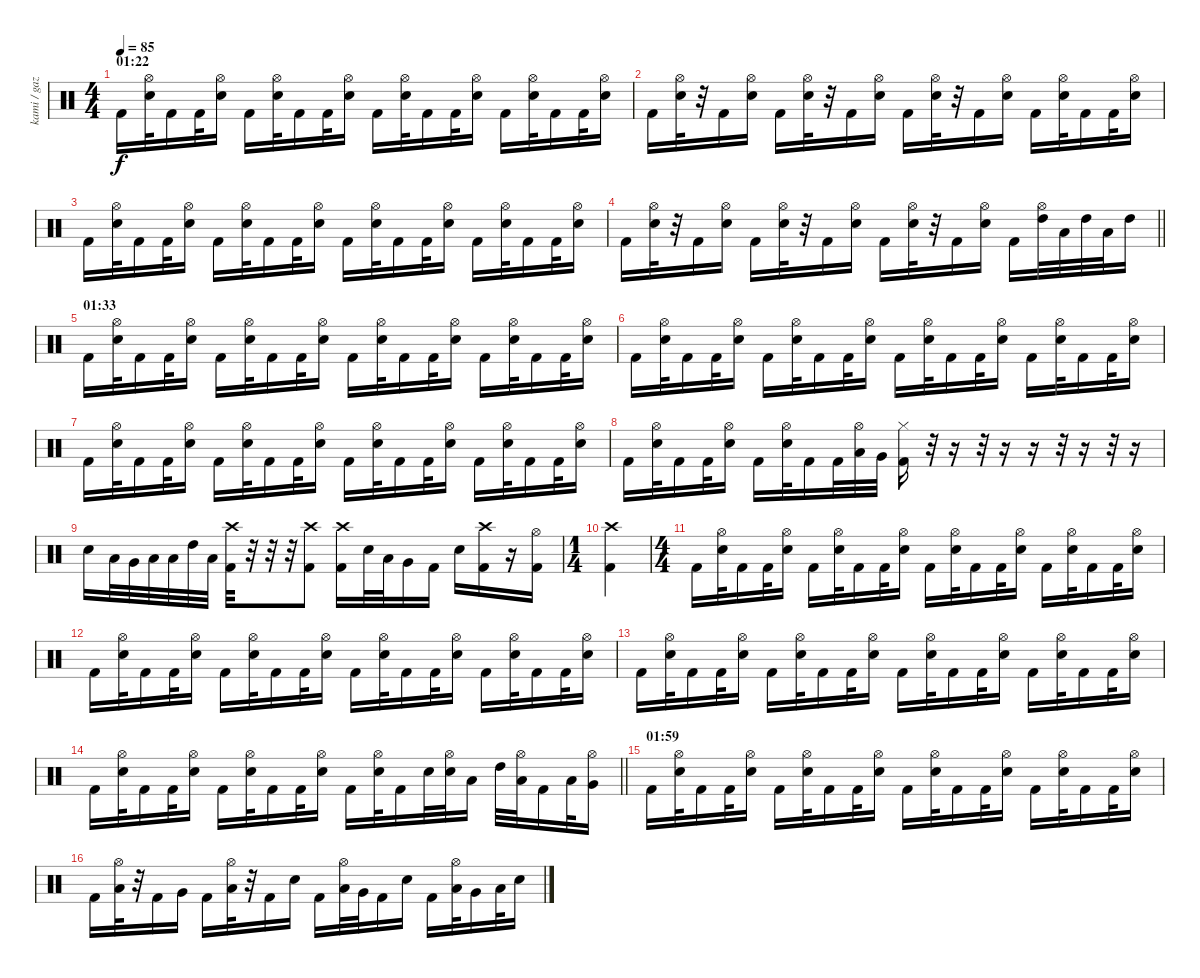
\track ("kami / gaz (?)" "kami / gaz") {instrument percussion}
\staff {score}
\articulation defaults
\ts (4 4)
\section ("" "01:22")
\tempo 85
\clef neutral
\ks c "Kick (hit) 2".16{dy f}
("Electric Snare (hit)" "Hi-Hat (open)").32 "Kick (hit) 2".16 "Kick (hit) 2".32 ("Electric Snare (hit)" "Hi-Hat (open)").16 "Kick (hit) 2".16 ("Electric Snare (hit)" "Hi-Hat (open)").32 "Kick (hit) 2".16 "Kick (hit) 2".32 ("Electric Snare (hit)" "Hi-Hat (open)").16 "Kick (hit) 2".16 ("Electric Snare (hit)" "Hi-Hat (open)").32 "Kick (hit) 2".16 "Kick (hit) 2".32 ("Electric Snare (hit)" "Hi-Hat (open)").16 "Kick (hit) 2".16 ("Electric Snare (hit)" "Hi-Hat (open)").32 "Kick (hit) 2".16 "Kick (hit) 2".32 ("Electric Snare (hit)" "Hi-Hat (open)").16 |
"Kick (hit) 2".16 ("Electric Snare (hit)" "Hi-Hat (open)").32 r.32 "Kick (hit) 2".16 ("Electric Snare (hit)" "Hi-Hat (open)").16 "Kick (hit) 2".16 ("Electric Snare (hit)" "Hi-Hat (open)").32 r.32 "Kick (hit) 2".16 ("Electric Snare (hit)" "Hi-Hat (open)").16 "Kick (hit) 2".16 ("Electric Snare (hit)" "Hi-Hat (open)").32 r.32 "Kick (hit) 2".16 ("Electric Snare (hit)" "Hi-Hat (open)").16 "Kick (hit) 2".16 ("Electric Snare (hit)" "Hi-Hat (open)").32 "Kick (hit) 2".16 "Kick (hit) 2".32 ("Electric Snare (hit)" "Hi-Hat (open)").16 |
"Kick (hit) 2".16 ("Electric Snare (hit)" "Hi-Hat (open)").32 "Kick (hit) 2".16 "Kick (hit) 2".32 ("Electric Snare (hit)" "Hi-Hat (open)").16 "Kick (hit) 2".16 ("Electric Snare (hit)" "Hi-Hat (open)").32 "Kick (hit) 2".16 "Kick (hit) 2".32 ("Electric Snare (hit)" "Hi-Hat (open)").16 "Kick (hit) 2".16 ("Electric Snare (hit)" "Hi-Hat (open)").32 "Kick (hit) 2".16 "Kick (hit) 2".32 ("Electric Snare (hit)" "Hi-Hat (open)").16 "Kick (hit) 2".16 ("Electric Snare (hit)" "Hi-Hat (open)").32 "Kick (hit) 2".16 "Kick (hit) 2".32 ("Electric Snare (hit)" "Hi-Hat (open)").16 |
\barLineRight lightlight "Kick (hit) 2".16
("Electric Snare (hit)" "Hi-Hat (open)").32 r.32 "Kick (hit) 2".16 ("Electric Snare (hit)" "Hi-Hat (open)").16 "Kick (hit) 2".16 ("Electric Snare (hit)" "Hi-Hat (open)").32 r.32 "Kick (hit) 2".16 ("Electric Snare (hit)" "Hi-Hat (open)").16 "Kick (hit) 2".16 ("Electric Snare (hit)" "Hi-Hat (open)").32 r.32 "Kick (hit) 2".16 ("Electric Snare (hit)" "Hi-Hat (open)").16 "Kick (hit) 2".16 ("High Tom (hit)" "Hi-Hat (open)").32 "Low Tom (hit)".32 "High Tom (hit)".32 "Low Tom (hit)".32 "High Tom (hit)".16 |
\section ("" "01:33")
"Kick (hit) 2".16 ("Electric Snare (hit)" "Hi-Hat (open)").32 "Kick (hit) 2".16 "Kick (hit) 2".32 ("Electric Snare (hit)" "Hi-Hat (open)").16 "Kick (hit) 2".16 ("Electric Snare (hit)" "Hi-Hat (open)").32 "Kick (hit) 2".16 "Kick (hit) 2".32 ("Electric Snare (hit)" "Hi-Hat (open)").16 "Kick (hit) 2".16 ("Electric Snare (hit)" "Hi-Hat (open)").32 "Kick (hit) 2".16 "Kick (hit) 2".32 ("Electric Snare (hit)" "Hi-Hat (open)").16 "Kick (hit) 2".16 ("Electric Snare (hit)" "Hi-Hat (open)").32 "Kick (hit) 2".16 "Kick (hit) 2".32 ("Electric Snare (hit)" "Hi-Hat (open)").16 |
"Kick (hit) 2".16 ("Electric Snare (hit)" "Hi-Hat (open)").32 "Kick (hit) 2".16 "Kick (hit) 2".32 ("Electric Snare (hit)" "Hi-Hat (open)").16 "Kick (hit) 2".16 ("Electric Snare (hit)" "Hi-Hat (open)").32 "Kick (hit) 2".16 "Kick (hit) 2".32 ("Electric Snare (hit)" "Hi-Hat (open)").16 "Kick (hit) 2".16 ("Electric Snare (hit)" "Hi-Hat (open)").32 "Kick (hit) 2".16 "Kick (hit) 2".32 ("Electric Snare (hit)" "Hi-Hat (open)").16 "Kick (hit) 2".16 ("Electric Snare (hit)" "Hi-Hat (open)").32 "Kick (hit) 2".16 "Kick (hit) 2".32 ("Electric Snare (hit)" "Hi-Hat (open)").16 |
"Kick (hit) 2".16 ("Electric Snare (hit)" "Hi-Hat (open)").32 "Kick (hit) 2".16 "Kick (hit) 2".32 ("Electric Snare (hit)" "Hi-Hat (open)").16 "Kick (hit) 2".16 ("Electric Snare (hit)" "Hi-Hat (open)").32 "Kick (hit) 2".16 "Kick (hit) 2".32 ("Electric Snare (hit)" "Hi-Hat (open)").16 "Kick (hit) 2".16 ("Electric Snare (hit)" "Hi-Hat (open)").32 "Kick (hit) 2".16 "Kick (hit) 2".32 ("Electric Snare (hit)" "Hi-Hat (open)").16 "Kick (hit) 2".16 ("Electric Snare (hit)" "Hi-Hat (open)").32 "Kick (hit) 2".16 "Kick (hit) 2".32 ("Electric Snare (hit)" "Hi-Hat (open)").16 |
"Kick (hit) 2".16 ("Electric Snare (hit)" "Hi-Hat (open)").32 "Kick (hit) 2".16 "Kick (hit) 2".32 ("Electric Snare (hit)" "Hi-Hat (open)").16 "Kick (hit) 2".16 ("Electric Snare (hit)" "Hi-Hat (open)").32 "Kick (hit) 2".16 "Kick (hit) 2".32 ("Low Tom (hit)" "Hi-Hat (open)").32 "Very Low Tom (hit)".32 ("Kick (hit) 2" "Hi-Hat (closed)").16 r.32 r.16 r.32 r.16 r.16 r.32 r.16 r.32 r.16 |
"Electric Snare (hit)".16 "Low Tom (hit)".32 "Very Low Tom (hit)".32 "Low Floor Tom (hit)".32 "Low Tom (hit)".32 "High Tom (hit)".32 "Low Tom (hit)".32 ("Kick (hit) 2" "Crash high (hit)").32 r.32 r.32 r.32 ("Kick (hit) 2" "Crash high (hit)").8 ("Kick (hit) 2" "Crash high (hit)").16 "Electric Snare (hit)".32 "Low Tom (hit)".32 "Very Low Tom (hit)".16 "Kick (hit) 2".16 "Electric Snare (hit)".16 ("Kick (hit) 2" "Crash high (hit)").16 r.16 ("Kick (hit) 2" "Hi-Hat (open)").16 |
\ts (1 4)
("Kick (hit) 2" "Crash high (hit)").4 |
\ts (4 4)
"Kick (hit) 2".16 ("Electric Snare (hit)" "Hi-Hat (open)").32 "Kick (hit) 2".16 "Kick (hit) 2".32 ("Electric Snare (hit)" "Hi-Hat (open)").16 "Kick (hit) 2".16 ("Electric Snare (hit)" "Hi-Hat (open)").32 "Kick (hit) 2".16 "Kick (hit) 2".32 ("Electric Snare (hit)" "Hi-Hat (open)").16 "Kick (hit) 2".16 ("Electric Snare (hit)" "Hi-Hat (open)").32 "Kick (hit) 2".16 "Kick (hit) 2".32 ("Electric Snare (hit)" "Hi-Hat (open)").16 "Kick (hit) 2".16 ("Electric Snare (hit)" "Hi-Hat (open)").32 "Kick (hit) 2".16 "Kick (hit) 2".32 ("Electric Snare (hit)" "Hi-Hat (open)").16 |
"Kick (hit) 2".16 ("Electric Snare (hit)" "Hi-Hat (open)").32 "Kick (hit) 2".16 "Kick (hit) 2".32 ("Electric Snare (hit)" "Hi-Hat (open)").16 "Kick (hit) 2".16 ("Electric Snare (hit)" "Hi-Hat (open)").32 "Kick (hit) 2".16 "Kick (hit) 2".32 ("Electric Snare (hit)" "Hi-Hat (open)").16 "Kick (hit) 2".16 ("Electric Snare (hit)" "Hi-Hat (open)").32 "Kick (hit) 2".16 "Kick (hit) 2".32 ("Electric Snare (hit)" "Hi-Hat (open)").16 "Kick (hit) 2".16 ("Electric Snare (hit)" "Hi-Hat (open)").32 "Kick (hit) 2".16 "Kick (hit) 2".32 ("Electric Snare (hit)" "Hi-Hat (open)").16 |
"Kick (hit) 2".16 ("Electric Snare (hit)" "Hi-Hat (open)").32 "Kick (hit) 2".16 "Kick (hit) 2".32 ("Electric Snare (hit)" "Hi-Hat (open)").16 "Kick (hit) 2".16 ("Electric Snare (hit)" "Hi-Hat (open)").32 "Kick (hit) 2".16 "Kick (hit) 2".32 ("Electric Snare (hit)" "Hi-Hat (open)").16 "Kick (hit) 2".16 ("Electric Snare (hit)" "Hi-Hat (open)").32 "Kick (hit) 2".16 "Kick (hit) 2".32 ("Electric Snare (hit)" "Hi-Hat (open)").16 "Kick (hit) 2".16 ("Electric Snare (hit)" "Hi-Hat (open)").32 "Kick (hit) 2".16 "Kick (hit) 2".32 ("Electric Snare (hit)" "Hi-Hat (open)").16 |
\barLineRight lightlight "Kick (hit) 2".16
("Electric Snare (hit)" "Hi-Hat (open)").32 "Kick (hit) 2".16 "Kick (hit) 2".32 ("Electric Snare (hit)" "Hi-Hat (open)").16 "Kick (hit) 2".16 ("Electric Snare (hit)" "Hi-Hat (open)").32 "Kick (hit) 2".16 "Kick (hit) 2".32 ("Electric Snare (hit)" "Hi-Hat (open)").16 "Kick (hit) 2".16 ("Electric Snare (hit)" "Hi-Hat (open)").32 "Kick (hit) 2".16 "Electric Snare (hit)".32 ("Electric Snare (hit)" "Hi-Hat (open)").32 "Low Tom (hit)".16 "High Tom (hit)".32 ("Low Tom (hit)" "Hi-Hat (open)").32 "Kick (hit) 2".16 "Low Tom (hit)".32 ("Very Low Tom (hit)" "Hi-Hat (open)").16 |
\section ("" "01:59")
"Kick (hit) 2".16 ("Electric Snare (hit)" "Hi-Hat (open)").32 "Kick (hit) 2".16 "Kick (hit) 2".32 ("Electric Snare (hit)" "Hi-Hat (open)").16 "Kick (hit) 2".16 ("Electric Snare (hit)" "Hi-Hat (open)").32 "Kick (hit) 2".16 "Kick (hit) 2".32 ("Electric Snare (hit)" "Hi-Hat (open)").16 "Kick (hit) 2".16 ("Electric Snare (hit)" "Hi-Hat (open)").32 "Kick (hit) 2".16 "Kick (hit) 2".32 ("Electric Snare (hit)" "Hi-Hat (open)").16 "Kick (hit) 2".16 ("Electric Snare (hit)" "Hi-Hat (open)").32 "Kick (hit) 2".16 "Kick (hit) 2".32 ("Electric Snare (hit)" "Hi-Hat (open)").16 |
"Kick (hit) 2".16 ("Low Tom (hit)" "Hi-Hat (open)").32 r.32 "Kick (hit) 2".16 "Very Low Tom (hit)".16 "Kick (hit) 2".16 ("Low Floor Tom (hit)" "Hi-Hat (open)").32 r.32 "Kick (hit) 2".16 "Electric Snare (hit)".16 "Kick (hit) 2".16 ("Low Tom (hit)" "Hi-Hat (open)").32 "Very Low Tom (hit)".32 "Kick (hit) 2".16 "Electric Snare (hit)".16 "Kick (hit) 2".16 ("Low Tom (hit)" "Hi-Hat (open)").32 "Very Low Tom (hit)".16 "Low Floor Tom (hit)".32 "Electric Snare (hit)".16
